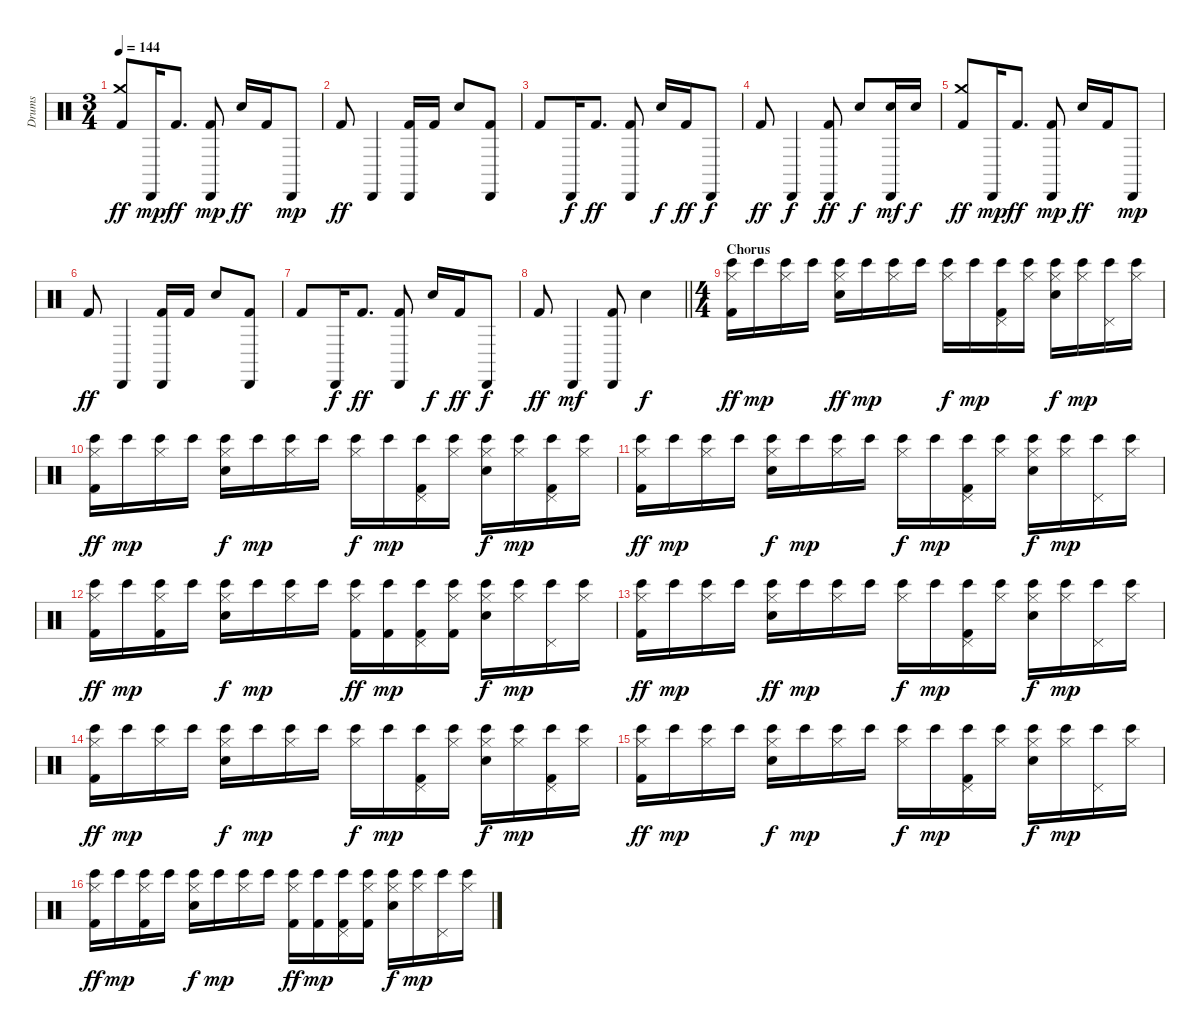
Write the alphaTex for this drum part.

\track ("Drums" "Drums") {instrument percussion}
\staff {score}
\articulation defaults
\ts (3 4)
\tempo 144
\clef neutral
\ks c
("Kick (hit) 2" "Crash medium (hit)").8{dy ff} "Cabasa (hit)".16{dy mp} "Kick (hit) 2".8{d dy ff} ("Kick (hit) 2" "Cabasa (hit)").8{dy mp} "Snare (hit) 2".16{dy ff} "Kick (hit) 2".16 "Cabasa (hit)".8{dy mp} |
"Kick (hit) 2".8{dy ff} "Cabasa (hit)".4 ("Kick (hit) 2" "Cabasa (hit)").16 "Kick (hit) 2".16 "Snare (hit) 2".8 ("Kick (hit) 2" "Cabasa (hit)").8 |
"Kick (hit) 2".8 "Cabasa (hit)".16{dy f} "Kick (hit) 2".8{d dy ff} ("Kick (hit) 2" "Cabasa (hit)").8 "Snare (hit) 2".16{dy f} "Kick (hit) 2".16{dy ff} "Cabasa (hit)".8{dy f} |
"Kick (hit) 2".8{dy ff} "Cabasa (hit)".4{dy f} ("Kick (hit) 2" "Cabasa (hit)").8{dy ff} "Snare (hit) 2".8{dy f} ("Snare (hit) 2" "Cabasa (hit)").16{dy mf} "Snare (hit) 2".16{dy f} |
("Kick (hit) 2" "Crash medium (hit)").8{dy ff} "Cabasa (hit)".16{dy mp} "Kick (hit) 2".8{d dy ff} ("Kick (hit) 2" "Cabasa (hit)").8{dy mp} "Snare (hit) 2".16{dy ff} "Kick (hit) 2".16 "Cabasa (hit)".8{dy mp} |
"Kick (hit) 2".8{dy ff} "Cabasa (hit)".4 ("Kick (hit) 2" "Cabasa (hit)").16 "Kick (hit) 2".16 "Snare (hit) 2".8 ("Kick (hit) 2" "Cabasa (hit)").8 |
"Kick (hit) 2".8 "Cabasa (hit)".16{dy f} "Kick (hit) 2".8{d dy ff} ("Kick (hit) 2" "Cabasa (hit)").8 "Snare (hit) 2".16{dy f} "Kick (hit) 2".16{dy ff} "Cabasa (hit)".8{dy f} |
\barLineRight lightlight "Kick (hit) 2".8{dy ff} "Cabasa (hit)".4{dy mf}
("Kick (hit) 2" "Cabasa (hit)").8 "Snare (hit) 2".4{dy f} |
\ts (4 4)
\section ("" "Chorus")
("Kick (hit) 2" "Hi-Hat (closed)" "Bongo High (hit)").16{dy ff} "Bongo High (hit)".16{dy mp} ("Hi-Hat (closed)" "Bongo High (hit)").16 "Bongo High (hit)".16 ("Snare (hit) 2" "Hi-Hat (closed)" "Bongo High (hit)").16{dy ff} "Bongo High (hit)".16{dy mp} ("Hi-Hat (closed)" "Bongo High (hit)").16 "Bongo High (hit)".16 ("Hi-Hat (closed)" "Bongo High (hit)").16{dy f} "Bongo High (hit)".16{dy mp} ("Kick (hit) 2" "Pedal Hi-Hat (hit)" "Bongo High (hit)").16 ("Hi-Hat (closed)" "Bongo High (hit)").16 ("Snare (hit) 2" "Hi-Hat (closed)" "Bongo High (hit)").16{dy f} ("Hi-Hat (closed)" "Bongo High (hit)").16{dy mp} ("Pedal Hi-Hat (hit)" "Bongo High (hit)").16 ("Hi-Hat (closed)" "Bongo High (hit)").16 |
("Kick (hit) 2" "Hi-Hat (closed)" "Bongo High (hit)").16{dy ff} "Bongo High (hit)".16{dy mp} ("Hi-Hat (closed)" "Bongo High (hit)").16 "Bongo High (hit)".16 ("Snare (hit) 2" "Hi-Hat (closed)" "Bongo High (hit)").16{dy f} "Bongo High (hit)".16{dy mp} ("Hi-Hat (closed)" "Bongo High (hit)").16 "Bongo High (hit)".16 ("Hi-Hat (closed)" "Bongo High (hit)").16{dy f} "Bongo High (hit)".16{dy mp} ("Kick (hit) 2" "Pedal Hi-Hat (hit)" "Bongo High (hit)").16 ("Hi-Hat (closed)" "Bongo High (hit)").16 ("Snare (hit) 2" "Hi-Hat (closed)" "Bongo High (hit)").16{dy f} ("Hi-Hat (closed)" "Bongo High (hit)").16{dy mp} ("Kick (hit) 2" "Pedal Hi-Hat (hit)" "Bongo High (hit)").16 ("Hi-Hat (closed)" "Bongo High (hit)").16 |
("Kick (hit) 2" "Hi-Hat (closed)" "Bongo High (hit)").16{dy ff} "Bongo High (hit)".16{dy mp} ("Hi-Hat (closed)" "Bongo High (hit)").16 "Bongo High (hit)".16 ("Snare (hit) 2" "Hi-Hat (closed)" "Bongo High (hit)").16{dy f} "Bongo High (hit)".16{dy mp} ("Hi-Hat (closed)" "Bongo High (hit)").16 "Bongo High (hit)".16 ("Hi-Hat (closed)" "Bongo High (hit)").16{dy f} "Bongo High (hit)".16{dy mp} ("Kick (hit) 2" "Pedal Hi-Hat (hit)" "Bongo High (hit)").16 ("Hi-Hat (closed)" "Bongo High (hit)").16 ("Snare (hit) 2" "Hi-Hat (closed)" "Bongo High (hit)").16{dy f} ("Hi-Hat (closed)" "Bongo High (hit)").16{dy mp} ("Pedal Hi-Hat (hit)" "Bongo High (hit)").16 ("Hi-Hat (closed)" "Bongo High (hit)").16 |
("Kick (hit) 2" "Hi-Hat (closed)" "Bongo High (hit)").16{dy ff} "Bongo High (hit)".16{dy mp} ("Kick (hit) 2" "Hi-Hat (closed)" "Bongo High (hit)").16 "Bongo High (hit)".16 ("Snare (hit) 2" "Hi-Hat (closed)" "Bongo High (hit)").16{dy f} "Bongo High (hit)".16{dy mp} ("Hi-Hat (closed)" "Bongo High (hit)").16 "Bongo High (hit)".16 ("Kick (hit) 2" "Hi-Hat (closed)" "Bongo High (hit)").16{dy ff} ("Kick (hit) 2" "Bongo High (hit)").16{dy mp} ("Kick (hit) 2" "Pedal Hi-Hat (hit)" "Bongo High (hit)").16 ("Kick (hit) 2" "Hi-Hat (closed)" "Bongo High (hit)").16 ("Snare (hit) 2" "Hi-Hat (closed)" "Bongo High (hit)").16{dy f} ("Hi-Hat (closed)" "Bongo High (hit)").16{dy mp} ("Pedal Hi-Hat (hit)" "Bongo High (hit)").16 ("Hi-Hat (closed)" "Bongo High (hit)").16 |
("Kick (hit) 2" "Hi-Hat (closed)" "Bongo High (hit)").16{dy ff} "Bongo High (hit)".16{dy mp} ("Hi-Hat (closed)" "Bongo High (hit)").16 "Bongo High (hit)".16 ("Snare (hit) 2" "Hi-Hat (closed)" "Bongo High (hit)").16{dy ff} "Bongo High (hit)".16{dy mp} ("Hi-Hat (closed)" "Bongo High (hit)").16 "Bongo High (hit)".16 ("Hi-Hat (closed)" "Bongo High (hit)").16{dy f} "Bongo High (hit)".16{dy mp} ("Kick (hit) 2" "Pedal Hi-Hat (hit)" "Bongo High (hit)").16 ("Hi-Hat (closed)" "Bongo High (hit)").16 ("Snare (hit) 2" "Hi-Hat (closed)" "Bongo High (hit)").16{dy f} ("Hi-Hat (closed)" "Bongo High (hit)").16{dy mp} ("Pedal Hi-Hat (hit)" "Bongo High (hit)").16 ("Hi-Hat (closed)" "Bongo High (hit)").16 |
("Kick (hit) 2" "Hi-Hat (closed)" "Bongo High (hit)").16{dy ff} "Bongo High (hit)".16{dy mp} ("Hi-Hat (closed)" "Bongo High (hit)").16 "Bongo High (hit)".16 ("Snare (hit) 2" "Hi-Hat (closed)" "Bongo High (hit)").16{dy f} "Bongo High (hit)".16{dy mp} ("Hi-Hat (closed)" "Bongo High (hit)").16 "Bongo High (hit)".16 ("Hi-Hat (closed)" "Bongo High (hit)").16{dy f} "Bongo High (hit)".16{dy mp} ("Kick (hit) 2" "Pedal Hi-Hat (hit)" "Bongo High (hit)").16 ("Hi-Hat (closed)" "Bongo High (hit)").16 ("Snare (hit) 2" "Hi-Hat (closed)" "Bongo High (hit)").16{dy f} ("Hi-Hat (closed)" "Bongo High (hit)").16{dy mp} ("Kick (hit) 2" "Pedal Hi-Hat (hit)" "Bongo High (hit)").16 ("Hi-Hat (closed)" "Bongo High (hit)").16 |
("Kick (hit) 2" "Hi-Hat (closed)" "Bongo High (hit)").16{dy ff} "Bongo High (hit)".16{dy mp} ("Hi-Hat (closed)" "Bongo High (hit)").16 "Bongo High (hit)".16 ("Snare (hit) 2" "Hi-Hat (closed)" "Bongo High (hit)").16{dy f} "Bongo High (hit)".16{dy mp} ("Hi-Hat (closed)" "Bongo High (hit)").16 "Bongo High (hit)".16 ("Hi-Hat (closed)" "Bongo High (hit)").16{dy f} "Bongo High (hit)".16{dy mp} ("Kick (hit) 2" "Pedal Hi-Hat (hit)" "Bongo High (hit)").16 ("Hi-Hat (closed)" "Bongo High (hit)").16 ("Snare (hit) 2" "Hi-Hat (closed)" "Bongo High (hit)").16{dy f} ("Hi-Hat (closed)" "Bongo High (hit)").16{dy mp} ("Pedal Hi-Hat (hit)" "Bongo High (hit)").16 ("Hi-Hat (closed)" "Bongo High (hit)").16 |
("Kick (hit) 2" "Hi-Hat (closed)" "Bongo High (hit)").16{dy ff} "Bongo High (hit)".16{dy mp} ("Kick (hit) 2" "Hi-Hat (closed)" "Bongo High (hit)").16 "Bongo High (hit)".16 ("Snare (hit) 2" "Hi-Hat (closed)" "Bongo High (hit)").16{dy f} "Bongo High (hit)".16{dy mp} ("Hi-Hat (closed)" "Bongo High (hit)").16 "Bongo High (hit)".16 ("Kick (hit) 2" "Hi-Hat (closed)" "Bongo High (hit)").16{dy ff} ("Kick (hit) 2" "Bongo High (hit)").16{dy mp} ("Kick (hit) 2" "Pedal Hi-Hat (hit)" "Bongo High (hit)").16 ("Kick (hit) 2" "Hi-Hat (closed)" "Bongo High (hit)").16 ("Snare (hit) 2" "Hi-Hat (closed)" "Bongo High (hit)").16{dy f} ("Hi-Hat (closed)" "Bongo High (hit)").16{dy mp} ("Pedal Hi-Hat (hit)" "Bongo High (hit)").16 ("Hi-Hat (closed)" "Bongo High (hit)").16
